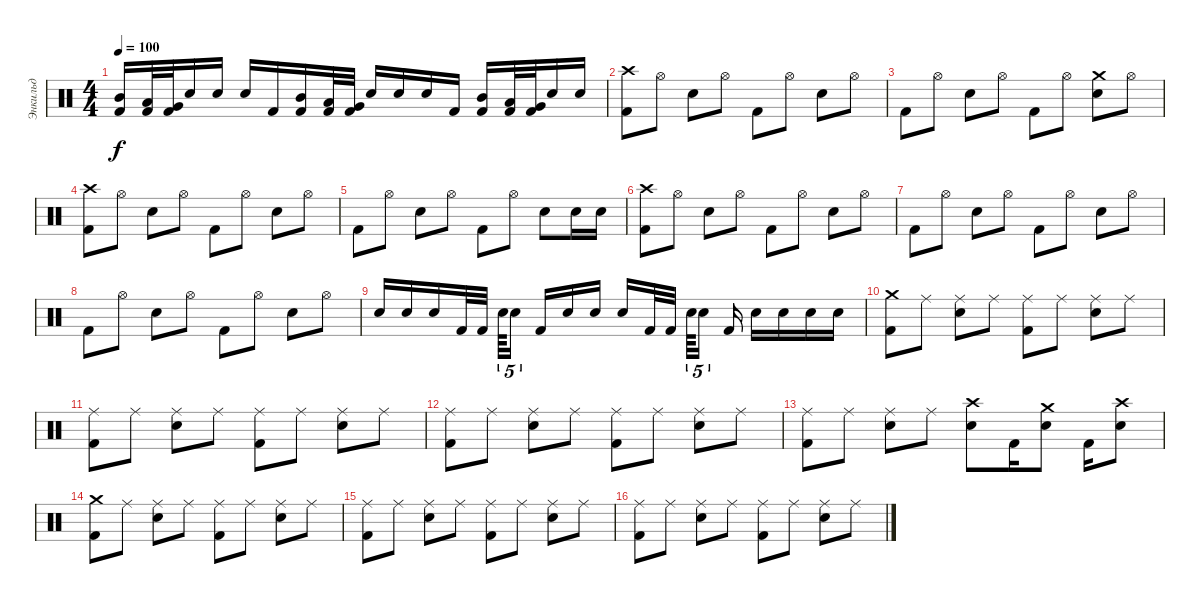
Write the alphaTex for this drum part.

\track ("Энкильд" "Энкильд") {instrument percussion}
\staff {score}
\articulation defaults
\ts (4 4)
\tempo 100
\clef neutral
\ks c
("Kick (hit) 2" "Mid Tom (hit)").16{dy f} ("Low Tom (hit)" "Kick (hit) 2").32 ("Very Low Tom (hit)" "Kick (hit) 2").32 "Snare (hit) 2".16 "Snare (hit) 2".16 "Snare (hit) 2".16 "Kick (hit) 2".16 ("Kick (hit) 2" "Mid Tom (hit)").16 ("Kick (hit) 2" "Low Tom (hit)").32 ("Kick (hit) 2" "Very Low Tom (hit)").32 "Snare (hit) 2".16 "Snare (hit) 2".16 "Snare (hit) 2".16 "Kick (hit) 2".16 ("Kick (hit) 2" "Mid Tom (hit)").16 ("Kick (hit) 2" "Low Tom (hit)").32 ("Kick (hit) 2" "Very Low Tom (hit)").32 "Snare (hit) 2".16 "Snare (hit) 2".16 |
("Crash high (hit)" "Kick (hit) 2").8 "Hi-Hat (open)".8 "Snare (hit) 2".8 "Hi-Hat (open)".8 "Kick (hit) 2".8 "Hi-Hat (open)".8 "Snare (hit) 2".8 "Hi-Hat (open)".8 |
"Kick (hit) 2".8 "Hi-Hat (open)".8 "Snare (hit) 2".8 "Hi-Hat (open)".8 "Kick (hit) 2".8 "Hi-Hat (open)".8 ("Crash medium (hit)" "Snare (hit) 2").8 "Hi-Hat (open)".8 |
("Crash high (hit)" "Kick (hit) 2").8 "Hi-Hat (open)".8 "Snare (hit) 2".8 "Hi-Hat (open)".8 "Kick (hit) 2".8 "Hi-Hat (open)".8 "Snare (hit) 2".8 "Hi-Hat (open)".8 |
"Kick (hit) 2".8 "Hi-Hat (open)".8 "Snare (hit) 2".8 "Hi-Hat (open)".8 "Kick (hit) 2".8 "Hi-Hat (open)".8 "Snare (hit) 2".8 "Snare (hit) 2".16 "Snare (hit) 2".16 |
("Crash high (hit)" "Kick (hit) 2").8 "Hi-Hat (open)".8 "Snare (hit) 2".8 "Hi-Hat (open)".8 "Kick (hit) 2".8 "Hi-Hat (open)".8 "Snare (hit) 2".8 "Hi-Hat (open)".8 |
"Kick (hit) 2".8 "Hi-Hat (open)".8 "Snare (hit) 2".8 "Hi-Hat (open)".8 "Kick (hit) 2".8 "Hi-Hat (open)".8 "Snare (hit) 2".8 "Hi-Hat (open)".8 |
"Kick (hit) 2".8 "Hi-Hat (open)".8 "Snare (hit) 2".8 "Hi-Hat (open)".8 "Kick (hit) 2".8 "Hi-Hat (open)".8 "Snare (hit) 2".8 "Hi-Hat (open)".8 |
"Snare (hit) 2".16 "Snare (hit) 2".16 "Snare (hit) 2".16 "Kick (hit) 2".32 "Kick (hit) 2".32 "Snare (hit) 2".64{tu (5 4)} "Snare (hit) 2".16{tu (5 4) beam splitsecondary} "Kick (hit) 2".16 "Snare (hit) 2".16 "Snare (hit) 2".16 "Snare (hit) 2".16 "Kick (hit) 2".32 "Kick (hit) 2".32{beam splitsecondary} "Snare (hit) 2".64{tu (5 4)} "Snare (hit) 2".16{tu (5 4) beam splitsecondary} "Kick (hit) 2".16 "Snare (hit) 2".16 "Snare (hit) 2".16 "Snare (hit) 2".16 "Snare (hit) 2".16 |
("Crash medium (hit)" "Kick (hit) 2").8 "Ride (middle)".8 ("Ride (middle)" "Snare (hit) 2").8 "Ride (middle)".8 ("Ride (middle)" "Kick (hit) 2").8 "Ride (middle)".8 ("Ride (middle)" "Snare (hit) 2").8 "Ride (middle)".8 |
("Kick (hit) 2" "Ride (middle)").8 "Ride (middle)".8 ("Snare (hit) 2" "Ride (middle)").8 "Ride (middle)".8 ("Kick (hit) 2" "Ride (middle)").8 "Ride (middle)".8 ("Snare (hit) 2" "Ride (middle)").8 "Ride (middle)".8 |
("Ride (middle)" "Kick (hit) 2").8 "Ride (middle)".8 ("Ride (middle)" "Snare (hit) 2").8 "Ride (middle)".8 ("Ride (middle)" "Kick (hit) 2").8 "Ride (middle)".8 ("Ride (middle)" "Snare (hit) 2").8 "Ride (middle)".8 |
("Ride (middle)" "Kick (hit) 2").8 "Ride (middle)".8 ("Ride (middle)" "Snare (hit) 2").8 "Ride (middle)".8 ("Crash high (hit)" "Snare (hit) 2").8 "Kick (hit) 2".16 ("Crash medium (hit)" "Snare (hit) 2").8 "Kick (hit) 2".16 ("Crash high (hit)" "Snare (hit) 2").8 |
("Crash medium (hit)" "Kick (hit) 2").8 "Ride (middle)".8 ("Ride (middle)" "Snare (hit) 2").8 "Ride (middle)".8 ("Ride (middle)" "Kick (hit) 2").8 "Ride (middle)".8 ("Ride (middle)" "Snare (hit) 2").8 "Ride (middle)".8 |
("Kick (hit) 2" "Ride (middle)").8 "Ride (middle)".8 ("Snare (hit) 2" "Ride (middle)").8 "Ride (middle)".8 ("Kick (hit) 2" "Ride (middle)").8 "Ride (middle)".8 ("Snare (hit) 2" "Ride (middle)").8 "Ride (middle)".8 |
("Kick (hit) 2" "Ride (middle)").8 "Ride (middle)".8 ("Snare (hit) 2" "Ride (middle)").8 "Ride (middle)".8 ("Kick (hit) 2" "Ride (middle)").8 "Ride (middle)".8 ("Snare (hit) 2" "Ride (middle)").8 "Ride (middle)".8
